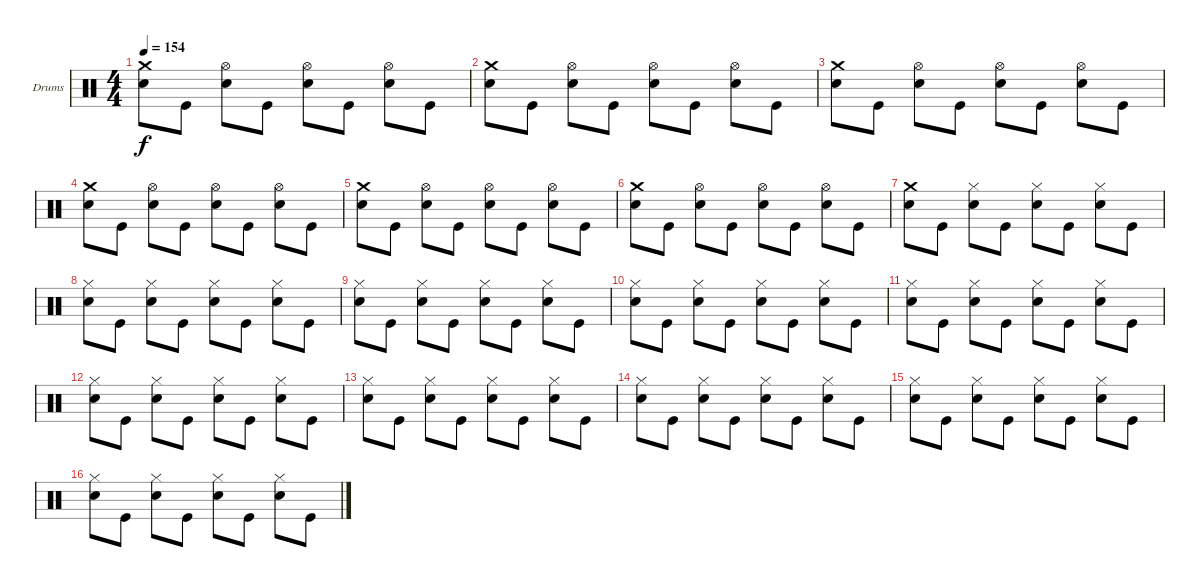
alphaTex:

\defaultSystemsLayout 4
\bracketExtendMode groupsimilarinstruments
\firstSystemTrackNameOrientation horizontal
\otherSystemsTrackNameOrientation horizontal
\track ("Drumkit" "Drums") {instrument percussion}
\staff {score}
\articulation defaults
\ts (4 4)
\tempo 154
\clef neutral
\ks c
("Crash medium (hit)" "Snare (hit) 2").8{dy f} "Kick (hit)".8 ("Hi-Hat (open)" "Snare (hit) 2").8 "Kick (hit)".8 ("Hi-Hat (open)" "Snare (hit) 2").8 "Kick (hit)".8 ("Hi-Hat (open)" "Snare (hit) 2").8 "Kick (hit)".8 |
("Crash medium (hit)" "Snare (hit) 2").8 "Kick (hit)".8 ("Hi-Hat (open)" "Snare (hit) 2").8 "Kick (hit)".8 ("Hi-Hat (open)" "Snare (hit) 2").8 "Kick (hit)".8 ("Hi-Hat (open)" "Snare (hit) 2").8 "Kick (hit)".8 |
("Crash medium (hit)" "Snare (hit) 2").8 "Kick (hit)".8 ("Hi-Hat (open)" "Snare (hit) 2").8 "Kick (hit)".8 ("Hi-Hat (open)" "Snare (hit) 2").8 "Kick (hit)".8 ("Hi-Hat (open)" "Snare (hit) 2").8 "Kick (hit)".8 |
("Crash medium (hit)" "Snare (hit) 2").8 "Kick (hit)".8 ("Hi-Hat (open)" "Snare (hit) 2").8 "Kick (hit)".8 ("Hi-Hat (open)" "Snare (hit) 2").8 "Kick (hit)".8 ("Hi-Hat (open)" "Snare (hit) 2").8 "Kick (hit)".8 |
("Crash medium (hit)" "Snare (hit) 2").8 "Kick (hit)".8 ("Hi-Hat (open)" "Snare (hit) 2").8 "Kick (hit)".8 ("Hi-Hat (open)" "Snare (hit) 2").8 "Kick (hit)".8 ("Hi-Hat (open)" "Snare (hit) 2").8 "Kick (hit)".8 |
("Crash medium (hit)" "Snare (hit) 2").8 "Kick (hit)".8 ("Hi-Hat (open)" "Snare (hit) 2").8 "Kick (hit)".8 ("Hi-Hat (open)" "Snare (hit) 2").8 "Kick (hit)".8 ("Hi-Hat (open)" "Snare (hit) 2").8 "Kick (hit)".8 |
("Crash medium (hit)" "Snare (hit) 2").8 "Kick (hit)".8 ("Hi-Hat (closed)" "Snare (hit) 2").8 "Kick (hit)".8 ("Hi-Hat (closed)" "Snare (hit) 2").8 "Kick (hit)".8 ("Hi-Hat (closed)" "Snare (hit) 2").8 "Kick (hit)".8 |
("Hi-Hat (closed)" "Snare (hit) 2").8 "Kick (hit)".8 ("Hi-Hat (closed)" "Snare (hit) 2").8 "Kick (hit)".8 ("Hi-Hat (closed)" "Snare (hit) 2").8 "Kick (hit)".8 ("Hi-Hat (closed)" "Snare (hit) 2").8 "Kick (hit)".8 |
("Hi-Hat (closed)" "Snare (hit) 2").8 "Kick (hit)".8 ("Hi-Hat (closed)" "Snare (hit) 2").8 "Kick (hit)".8 ("Hi-Hat (closed)" "Snare (hit) 2").8 "Kick (hit)".8 ("Hi-Hat (closed)" "Snare (hit) 2").8 "Kick (hit)".8 |
("Hi-Hat (closed)" "Snare (hit) 2").8 "Kick (hit)".8 ("Hi-Hat (closed)" "Snare (hit) 2").8 "Kick (hit)".8 ("Hi-Hat (closed)" "Snare (hit) 2").8 "Kick (hit)".8 ("Hi-Hat (closed)" "Snare (hit) 2").8 "Kick (hit)".8 |
("Hi-Hat (closed)" "Snare (hit) 2").8 "Kick (hit)".8 ("Hi-Hat (closed)" "Snare (hit) 2").8 "Kick (hit)".8 ("Hi-Hat (closed)" "Snare (hit) 2").8 "Kick (hit)".8 ("Hi-Hat (closed)" "Snare (hit) 2").8 "Kick (hit)".8 |
("Hi-Hat (closed)" "Snare (hit) 2").8 "Kick (hit)".8 ("Hi-Hat (closed)" "Snare (hit) 2").8 "Kick (hit)".8 ("Hi-Hat (closed)" "Snare (hit) 2").8 "Kick (hit)".8 ("Hi-Hat (closed)" "Snare (hit) 2").8 "Kick (hit)".8 |
("Hi-Hat (closed)" "Snare (hit) 2").8 "Kick (hit)".8 ("Hi-Hat (closed)" "Snare (hit) 2").8 "Kick (hit)".8 ("Hi-Hat (closed)" "Snare (hit) 2").8 "Kick (hit)".8 ("Hi-Hat (closed)" "Snare (hit) 2").8 "Kick (hit)".8 |
("Hi-Hat (closed)" "Snare (hit) 2").8 "Kick (hit)".8 ("Hi-Hat (closed)" "Snare (hit) 2").8 "Kick (hit)".8 ("Hi-Hat (closed)" "Snare (hit) 2").8 "Kick (hit)".8 ("Hi-Hat (closed)" "Snare (hit) 2").8 "Kick (hit)".8 |
("Hi-Hat (closed)" "Snare (hit) 2").8 "Kick (hit)".8 ("Hi-Hat (closed)" "Snare (hit) 2").8 "Kick (hit)".8 ("Hi-Hat (closed)" "Snare (hit) 2").8 "Kick (hit)".8 ("Hi-Hat (closed)" "Snare (hit) 2").8 "Kick (hit)".8 |
("Hi-Hat (closed)" "Snare (hit) 2").8 "Kick (hit)".8 ("Hi-Hat (closed)" "Snare (hit) 2").8 "Kick (hit)".8 ("Hi-Hat (closed)" "Snare (hit) 2").8 "Kick (hit)".8 ("Hi-Hat (closed)" "Snare (hit) 2").8 "Kick (hit)".8
